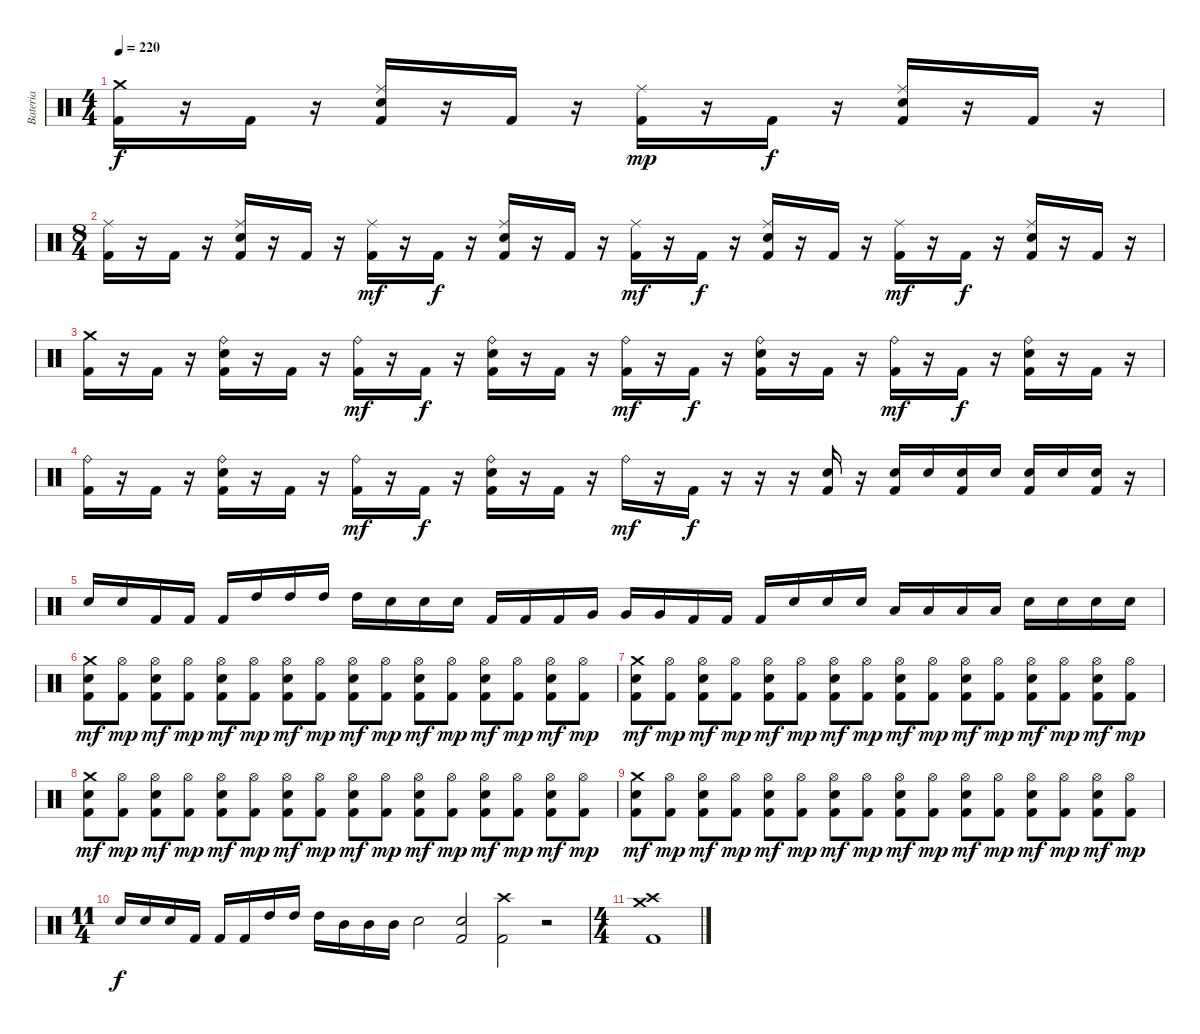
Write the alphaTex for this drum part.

\track ("Bateria" "Bateria") {instrument percussion}
\staff {score}
\articulation defaults
\ts (4 4)
\tempo 220
\clef neutral
\ks c
("Crash medium (hit)" "Kick (hit) 2").16{dy f} r.16 "Kick (hit) 2".16 r.16 ("Ride (middle)" "Electric Snare (hit)" "Kick (hit) 2").16 r.16 "Kick (hit) 2".16 r.16 ("Ride (middle)" "Kick (hit) 2").16{dy mp} r.16 "Kick (hit) 2".16{dy f} r.16 ("Ride (middle)" "Electric Snare (hit)" "Kick (hit) 2").16 r.16 "Kick (hit) 2".16 r.16 |
\ts (8 4)
("Ride (middle)" "Kick (hit) 2").16 r.16 "Kick (hit) 2".16 r.16 ("Ride (middle)" "Electric Snare (hit)" "Kick (hit) 2").16 r.16 "Kick (hit) 2".16 r.16 ("Ride (middle)" "Kick (hit) 2").16{dy mf} r.16 "Kick (hit) 2".16{dy f} r.16 ("Ride (middle)" "Electric Snare (hit)" "Kick (hit) 2").16 r.16 "Kick (hit) 2".16 r.16 ("Ride (middle)" "Kick (hit) 2").16{dy mf} r.16 "Kick (hit) 2".16{dy f} r.16 ("Ride (middle)" "Electric Snare (hit)" "Kick (hit) 2").16 r.16 "Kick (hit) 2".16 r.16 ("Ride (middle)" "Kick (hit) 2").16{dy mf} r.16 "Kick (hit) 2".16{dy f} r.16 ("Ride (middle)" "Electric Snare (hit)" "Kick (hit) 2").16 r.16 "Kick (hit) 2".16 r.16 |
("Crash medium (hit)" "Kick (hit) 2").16 r.16 "Kick (hit) 2".16 r.16 ("Ride (bell)" "Electric Snare (hit)" "Kick (hit) 2").16 r.16 "Kick (hit) 2".16 r.16 ("Ride (bell)" "Kick (hit) 2").16{dy mf} r.16 "Kick (hit) 2".16{dy f} r.16 ("Ride (bell)" "Electric Snare (hit)" "Kick (hit) 2").16 r.16 "Kick (hit) 2".16 r.16 ("Ride (bell)" "Kick (hit) 2").16{dy mf} r.16 "Kick (hit) 2".16{dy f} r.16 ("Ride (bell)" "Electric Snare (hit)" "Kick (hit) 2").16 r.16 "Kick (hit) 2".16 r.16 ("Ride (bell)" "Kick (hit) 2").16{dy mf} r.16 "Kick (hit) 2".16{dy f} r.16 ("Ride (bell)" "Electric Snare (hit)" "Kick (hit) 2").16 r.16 "Kick (hit) 2".16 r.16 |
("Ride (bell)" "Kick (hit) 2").16 r.16 "Kick (hit) 2".16 r.16 ("Ride (bell)" "Electric Snare (hit)" "Kick (hit) 2").16 r.16 "Kick (hit) 2".16 r.16 ("Ride (bell)" "Kick (hit) 2").16{dy mf} r.16 "Kick (hit) 2".16{dy f} r.16 ("Ride (bell)" "Electric Snare (hit)" "Kick (hit) 2").16 r.16 "Kick (hit) 2".16 r.16 "Ride (bell)".16{dy mf} r.16 "Kick (hit) 2".16{dy f} r.16 r.16 r.16 ("Electric Snare (hit)" "Kick (hit) 2").16 r.16 ("Electric Snare (hit)" "Kick (hit) 2").16 "Electric Snare (hit)".16 ("Electric Snare (hit)" "Kick (hit) 2").16 "Electric Snare (hit)".16 ("Electric Snare (hit)" "Kick (hit) 2").16 "Electric Snare (hit)".16 ("Electric Snare (hit)" "Kick (hit) 2").16 r.16 |
"Electric Snare (hit)".16 "Electric Snare (hit)".16 "Kick (hit) 2".16 "Kick (hit) 2".16 "Kick (hit) 2".16 "High Tom (hit)".16 "High Tom (hit)".16 "High Tom (hit)".16 "High Tom (hit)".16 "Electric Snare (hit)".16 "Electric Snare (hit)".16 "Electric Snare (hit)".16 "Kick (hit) 2".16 "Kick (hit) 2".16 "Kick (hit) 2".16 "Very Low Tom (hit)".16 "Very Low Tom (hit)".16 "Very Low Tom (hit)".16 "Kick (hit) 2".16 "Kick (hit) 2".16 "Kick (hit) 2".16 "Electric Snare (hit)".16 "Electric Snare (hit)".16 "Electric Snare (hit)".16 "Low Tom (hit)".16 "Low Tom (hit)".16 "Low Tom (hit)".16 "Low Tom (hit)".16 "Electric Snare (hit)".16 "Electric Snare (hit)".16 "Electric Snare (hit)".16 "Electric Snare (hit)".16 |
("Crash medium (hit)" "Electric Snare (hit)" "Kick (hit) 2").8{dy mf} ("Hi-Hat (open)" "Kick (hit) 2").8{dy mp} ("Hi-Hat (open)" "Electric Snare (hit)" "Kick (hit) 2").8{dy mf} ("Hi-Hat (open)" "Kick (hit) 2").8{dy mp} ("Hi-Hat (open)" "Electric Snare (hit)" "Kick (hit) 2").8{dy mf} ("Hi-Hat (open)" "Kick (hit) 2").8{dy mp} ("Hi-Hat (open)" "Electric Snare (hit)" "Kick (hit) 2").8{dy mf} ("Hi-Hat (open)" "Kick (hit) 2").8{dy mp} ("Hi-Hat (open)" "Electric Snare (hit)" "Kick (hit) 2").8{dy mf} ("Hi-Hat (open)" "Kick (hit) 2").8{dy mp} ("Hi-Hat (open)" "Electric Snare (hit)" "Kick (hit) 2").8{dy mf} ("Hi-Hat (open)" "Kick (hit) 2").8{dy mp} ("Hi-Hat (open)" "Electric Snare (hit)" "Kick (hit) 2").8{dy mf} ("Hi-Hat (open)" "Kick (hit) 2").8{dy mp} ("Hi-Hat (open)" "Electric Snare (hit)" "Kick (hit) 2").8{dy mf} ("Hi-Hat (open)" "Kick (hit) 2").8{dy mp} |
("Crash medium (hit)" "Electric Snare (hit)" "Kick (hit) 2").8{dy mf} ("Hi-Hat (open)" "Kick (hit) 2").8{dy mp} ("Hi-Hat (open)" "Electric Snare (hit)" "Kick (hit) 2").8{dy mf} ("Hi-Hat (open)" "Kick (hit) 2").8{dy mp} ("Hi-Hat (open)" "Electric Snare (hit)" "Kick (hit) 2").8{dy mf} ("Hi-Hat (open)" "Kick (hit) 2").8{dy mp} ("Hi-Hat (open)" "Electric Snare (hit)" "Kick (hit) 2").8{dy mf} ("Hi-Hat (open)" "Kick (hit) 2").8{dy mp} ("Hi-Hat (open)" "Electric Snare (hit)" "Kick (hit) 2").8{dy mf} ("Hi-Hat (open)" "Kick (hit) 2").8{dy mp} ("Hi-Hat (open)" "Electric Snare (hit)" "Kick (hit) 2").8{dy mf} ("Hi-Hat (open)" "Kick (hit) 2").8{dy mp} ("Hi-Hat (open)" "Electric Snare (hit)" "Kick (hit) 2").8{dy mf} ("Hi-Hat (open)" "Kick (hit) 2").8{dy mp} ("Hi-Hat (open)" "Electric Snare (hit)" "Kick (hit) 2").8{dy mf} ("Hi-Hat (open)" "Kick (hit) 2").8{dy mp} |
("Crash medium (hit)" "Electric Snare (hit)" "Kick (hit) 2").8{dy mf} ("Hi-Hat (open)" "Kick (hit) 2").8{dy mp} ("Hi-Hat (open)" "Electric Snare (hit)" "Kick (hit) 2").8{dy mf} ("Hi-Hat (open)" "Kick (hit) 2").8{dy mp} ("Hi-Hat (open)" "Electric Snare (hit)" "Kick (hit) 2").8{dy mf} ("Hi-Hat (open)" "Kick (hit) 2").8{dy mp} ("Hi-Hat (open)" "Electric Snare (hit)" "Kick (hit) 2").8{dy mf} ("Hi-Hat (open)" "Kick (hit) 2").8{dy mp} ("Hi-Hat (open)" "Electric Snare (hit)" "Kick (hit) 2").8{dy mf} ("Hi-Hat (open)" "Kick (hit) 2").8{dy mp} ("Hi-Hat (open)" "Electric Snare (hit)" "Kick (hit) 2").8{dy mf} ("Hi-Hat (open)" "Kick (hit) 2").8{dy mp} ("Hi-Hat (open)" "Electric Snare (hit)" "Kick (hit) 2").8{dy mf} ("Hi-Hat (open)" "Kick (hit) 2").8{dy mp} ("Hi-Hat (open)" "Electric Snare (hit)" "Kick (hit) 2").8{dy mf} ("Hi-Hat (open)" "Kick (hit) 2").8{dy mp} |
("Crash medium (hit)" "Electric Snare (hit)" "Kick (hit) 2").8{dy mf} ("Hi-Hat (open)" "Kick (hit) 2").8{dy mp} ("Hi-Hat (open)" "Electric Snare (hit)" "Kick (hit) 2").8{dy mf} ("Hi-Hat (open)" "Kick (hit) 2").8{dy mp} ("Hi-Hat (open)" "Electric Snare (hit)" "Kick (hit) 2").8{dy mf} ("Hi-Hat (open)" "Kick (hit) 2").8{dy mp} ("Hi-Hat (open)" "Electric Snare (hit)" "Kick (hit) 2").8{dy mf} ("Hi-Hat (open)" "Kick (hit) 2").8{dy mp} ("Hi-Hat (open)" "Electric Snare (hit)" "Kick (hit) 2").8{dy mf} ("Hi-Hat (open)" "Kick (hit) 2").8{dy mp} ("Hi-Hat (open)" "Electric Snare (hit)" "Kick (hit) 2").8{dy mf} ("Hi-Hat (open)" "Kick (hit) 2").8{dy mp} ("Hi-Hat (open)" "Electric Snare (hit)" "Kick (hit) 2").8{dy mf} ("Hi-Hat (open)" "Kick (hit) 2").8{dy mp} ("Hi-Hat (open)" "Electric Snare (hit)" "Kick (hit) 2").8{dy mf} ("Hi-Hat (open)" "Kick (hit) 2").8{dy mp} |
\ts (11 4)
"Electric Snare (hit)".16{dy f} "Electric Snare (hit)".16 "Electric Snare (hit)".16 "Kick (hit) 2".16 "Kick (hit) 2".16 "Kick (hit) 2".16 "High Tom (hit)".16 "High Tom (hit)".16 "High Tom (hit)".16 "Mid Tom (hit)".16 "Mid Tom (hit)".16 "Mid Tom (hit)".16 "Electric Snare (hit)".2 ("Electric Snare (hit)" "Kick (hit) 2").2 ("Crash high (hit)" "Kick (hit) 2").2 r.2 |
\ts (4 4)
("Crash medium (hit)" "Crash high (hit)" "Kick (hit) 2").1
